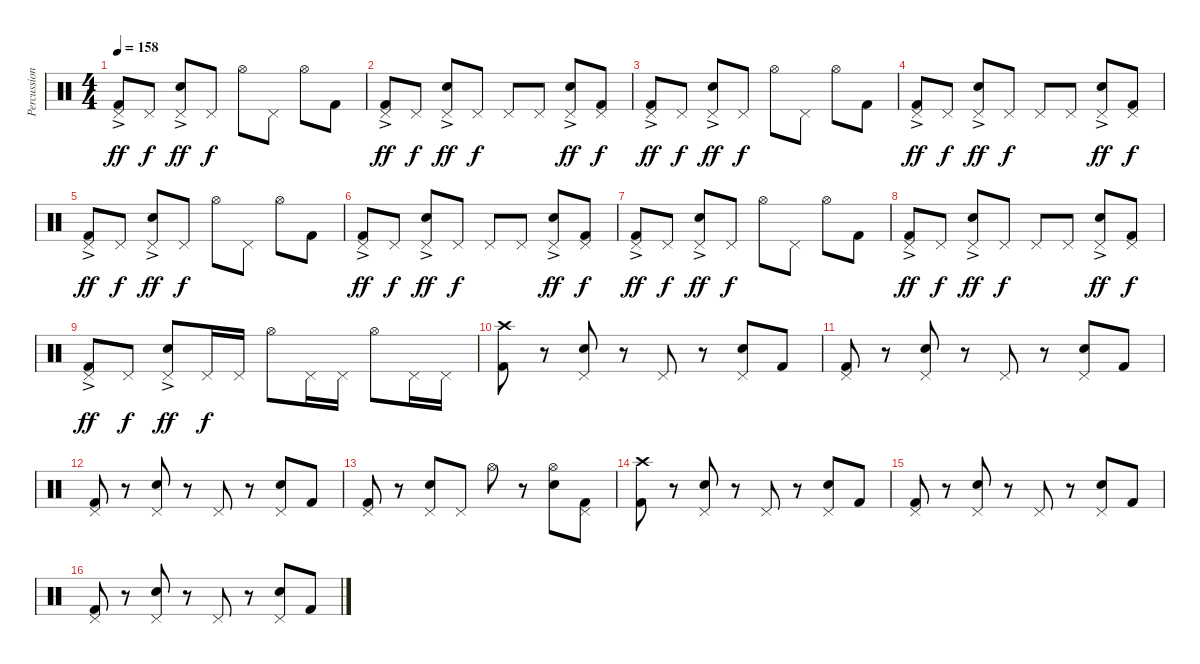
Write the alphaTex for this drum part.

\track ("Percussion" "Percussion") {instrument percussion bank 78}
\staff {score}
\articulation defaults
\ts (4 4)
\tempo 158
\clef neutral
\ks c
("Pedal Hi-Hat (hit)" "Kick (hit) 2"{ac}).8{dy ff} "Pedal Hi-Hat (hit)".8{dy f} ("Pedal Hi-Hat (hit)"{ac} "Electric Snare (hit)").8{dy ff} "Pedal Hi-Hat (hit)".8{dy f} "Hi-Hat (open)".8 "Pedal Hi-Hat (hit)".8 "Hi-Hat (open)".8 "Kick (hit) 2".8 |
("Pedal Hi-Hat (hit)" "Kick (hit) 2"{ac}).8{dy ff} "Pedal Hi-Hat (hit)".8{dy f} ("Pedal Hi-Hat (hit)"{ac} "Electric Snare (hit)").8{dy ff} "Pedal Hi-Hat (hit)".8{dy f} "Pedal Hi-Hat (hit)".8 "Pedal Hi-Hat (hit)".8 ("Pedal Hi-Hat (hit)"{ac} "Electric Snare (hit)").8{dy ff} ("Pedal Hi-Hat (hit)" "Kick (hit) 2").8{dy f} |
("Pedal Hi-Hat (hit)" "Kick (hit) 2"{ac}).8{dy ff} "Pedal Hi-Hat (hit)".8{dy f} ("Pedal Hi-Hat (hit)"{ac} "Electric Snare (hit)").8{dy ff} "Pedal Hi-Hat (hit)".8{dy f} "Hi-Hat (open)".8 "Pedal Hi-Hat (hit)".8 "Hi-Hat (open)".8 "Kick (hit) 2".8 |
("Pedal Hi-Hat (hit)" "Kick (hit) 2"{ac}).8{dy ff} "Pedal Hi-Hat (hit)".8{dy f} ("Pedal Hi-Hat (hit)"{ac} "Electric Snare (hit)").8{dy ff} "Pedal Hi-Hat (hit)".8{dy f} "Pedal Hi-Hat (hit)".8 "Pedal Hi-Hat (hit)".8 ("Pedal Hi-Hat (hit)"{ac} "Electric Snare (hit)").8{dy ff} ("Pedal Hi-Hat (hit)" "Kick (hit) 2").8{dy f} |
("Pedal Hi-Hat (hit)" "Kick (hit) 2"{ac}).8{dy ff} "Pedal Hi-Hat (hit)".8{dy f} ("Pedal Hi-Hat (hit)"{ac} "Electric Snare (hit)").8{dy ff} "Pedal Hi-Hat (hit)".8{dy f} "Hi-Hat (open)".8 "Pedal Hi-Hat (hit)".8 "Hi-Hat (open)".8 "Kick (hit) 2".8 |
("Pedal Hi-Hat (hit)" "Kick (hit) 2"{ac}).8{dy ff} "Pedal Hi-Hat (hit)".8{dy f} ("Pedal Hi-Hat (hit)"{ac} "Electric Snare (hit)").8{dy ff} "Pedal Hi-Hat (hit)".8{dy f} "Pedal Hi-Hat (hit)".8 "Pedal Hi-Hat (hit)".8 ("Pedal Hi-Hat (hit)"{ac} "Electric Snare (hit)").8{dy ff} ("Pedal Hi-Hat (hit)" "Kick (hit) 2").8{dy f} |
("Pedal Hi-Hat (hit)" "Kick (hit) 2"{ac}).8{dy ff} "Pedal Hi-Hat (hit)".8{dy f} ("Pedal Hi-Hat (hit)"{ac} "Electric Snare (hit)").8{dy ff} "Pedal Hi-Hat (hit)".8{dy f} "Hi-Hat (open)".8 "Pedal Hi-Hat (hit)".8 "Hi-Hat (open)".8 "Kick (hit) 2".8 |
("Pedal Hi-Hat (hit)" "Kick (hit) 2"{ac}).8{dy ff} "Pedal Hi-Hat (hit)".8{dy f} ("Pedal Hi-Hat (hit)"{ac} "Electric Snare (hit)").8{dy ff} "Pedal Hi-Hat (hit)".8{dy f} "Pedal Hi-Hat (hit)".8 "Pedal Hi-Hat (hit)".8 ("Pedal Hi-Hat (hit)"{ac} "Electric Snare (hit)").8{dy ff} ("Pedal Hi-Hat (hit)" "Kick (hit) 2").8{dy f} |
("Pedal Hi-Hat (hit)" "Kick (hit) 2"{ac}).8{dy ff} "Pedal Hi-Hat (hit)".8{dy f} ("Pedal Hi-Hat (hit)"{ac} "Electric Snare (hit)").8{dy ff} "Pedal Hi-Hat (hit)".16{dy f} "Pedal Hi-Hat (hit)".16 "Hi-Hat (open)".8 "Pedal Hi-Hat (hit)".16 "Pedal Hi-Hat (hit)".16 "Hi-Hat (open)".8 "Pedal Hi-Hat (hit)".16 "Pedal Hi-Hat (hit)".16 |
("Crash high (hit)" "Kick (hit) 2").8 r.8 ("Pedal Hi-Hat (hit)" "Electric Snare (hit)").8 r.8 "Pedal Hi-Hat (hit)".8 r.8 ("Pedal Hi-Hat (hit)" "Electric Snare (hit)").8 "Kick (hit) 2".8 |
("Pedal Hi-Hat (hit)" "Kick (hit) 2").8 r.8 ("Pedal Hi-Hat (hit)" "Electric Snare (hit)").8 r.8 "Pedal Hi-Hat (hit)".8 r.8 ("Pedal Hi-Hat (hit)" "Electric Snare (hit)").8 "Kick (hit) 2".8 |
("Pedal Hi-Hat (hit)" "Kick (hit) 2").8 r.8 ("Pedal Hi-Hat (hit)" "Electric Snare (hit)").8 r.8 "Pedal Hi-Hat (hit)".8 r.8 ("Pedal Hi-Hat (hit)" "Electric Snare (hit)").8 "Kick (hit) 2".8 |
("Pedal Hi-Hat (hit)" "Kick (hit) 2").8 r.8 ("Pedal Hi-Hat (hit)" "Electric Snare (hit)").8 "Pedal Hi-Hat (hit)".8 "Hi-Hat (open)".8 r.8 ("Hi-Hat (open)" "Electric Snare (hit)").8 ("Pedal Hi-Hat (hit)" "Kick (hit) 2").8 |
("Crash high (hit)" "Kick (hit) 2").8 r.8 ("Pedal Hi-Hat (hit)" "Electric Snare (hit)").8 r.8 "Pedal Hi-Hat (hit)".8 r.8 ("Pedal Hi-Hat (hit)" "Electric Snare (hit)").8 "Kick (hit) 2".8 |
("Pedal Hi-Hat (hit)" "Kick (hit) 2").8 r.8 ("Pedal Hi-Hat (hit)" "Electric Snare (hit)").8 r.8 "Pedal Hi-Hat (hit)".8 r.8 ("Pedal Hi-Hat (hit)" "Electric Snare (hit)").8 "Kick (hit) 2".8 |
("Pedal Hi-Hat (hit)" "Kick (hit) 2").8 r.8 ("Pedal Hi-Hat (hit)" "Electric Snare (hit)").8 r.8 "Pedal Hi-Hat (hit)".8 r.8 ("Pedal Hi-Hat (hit)" "Electric Snare (hit)").8 "Kick (hit) 2".8
